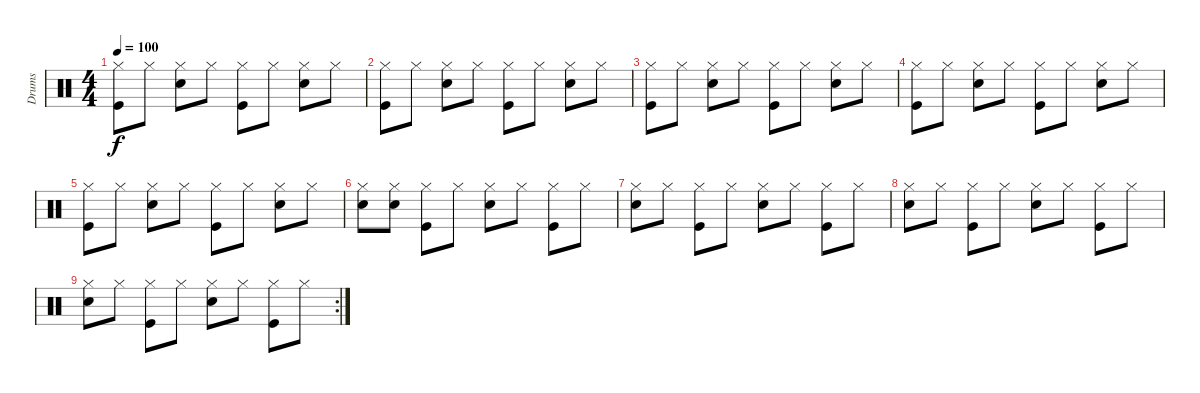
\track ("Drums" "Drums") {instrument percussion}
\staff {score}
\articulation defaults
\ts (4 4)
\tempo 100
\clef neutral
\ks c
("Hi-Hat (closed)" "Kick (hit)").8{dy f} "Hi-Hat (closed)".8 ("Hi-Hat (closed)" "Snare (hit) 2").8 "Hi-Hat (closed)".8 ("Hi-Hat (closed)" "Kick (hit)").8 "Hi-Hat (closed)".8 ("Hi-Hat (closed)" "Snare (hit) 2").8 "Hi-Hat (closed)".8 |
("Hi-Hat (closed)" "Kick (hit)").8 "Hi-Hat (closed)".8 ("Hi-Hat (closed)" "Snare (hit) 2").8 "Hi-Hat (closed)".8 ("Hi-Hat (closed)" "Kick (hit)").8 "Hi-Hat (closed)".8 ("Hi-Hat (closed)" "Snare (hit) 2").8 "Hi-Hat (closed)".8 |
("Hi-Hat (closed)" "Kick (hit)").8 "Hi-Hat (closed)".8 ("Hi-Hat (closed)" "Snare (hit) 2").8 "Hi-Hat (closed)".8 ("Hi-Hat (closed)" "Kick (hit)").8 "Hi-Hat (closed)".8 ("Hi-Hat (closed)" "Snare (hit) 2").8 "Hi-Hat (closed)".8 |
("Hi-Hat (closed)" "Kick (hit)").8 "Hi-Hat (closed)".8 ("Hi-Hat (closed)" "Snare (hit) 2").8 "Hi-Hat (closed)".8 ("Hi-Hat (closed)" "Kick (hit)").8 "Hi-Hat (closed)".8 ("Hi-Hat (closed)" "Snare (hit) 2").8 "Hi-Hat (closed)".8 |
("Hi-Hat (closed)" "Kick (hit)").8 "Hi-Hat (closed)".8 ("Hi-Hat (closed)" "Snare (hit) 2").8 "Hi-Hat (closed)".8 ("Hi-Hat (closed)" "Kick (hit)").8 "Hi-Hat (closed)".8 ("Hi-Hat (closed)" "Snare (hit) 2").8 "Hi-Hat (closed)".8 |
("Hi-Hat (closed)" "Snare (hit) 2").8 ("Hi-Hat (closed)" "Snare (hit) 2").8 ("Hi-Hat (closed)" "Kick (hit)").8 "Hi-Hat (closed)".8 ("Hi-Hat (closed)" "Snare (hit) 2").8 "Hi-Hat (closed)".8 ("Hi-Hat (closed)" "Kick (hit)").8 "Hi-Hat (closed)".8 |
("Hi-Hat (closed)" "Snare (hit) 2").8 "Hi-Hat (closed)".8 ("Hi-Hat (closed)" "Kick (hit)").8 "Hi-Hat (closed)".8 ("Hi-Hat (closed)" "Snare (hit) 2").8 "Hi-Hat (closed)".8 ("Hi-Hat (closed)" "Kick (hit)").8 "Hi-Hat (closed)".8 |
("Hi-Hat (closed)" "Snare (hit) 2").8 "Hi-Hat (closed)".8 ("Hi-Hat (closed)" "Kick (hit)").8 "Hi-Hat (closed)".8 ("Hi-Hat (closed)" "Snare (hit) 2").8 "Hi-Hat (closed)".8 ("Hi-Hat (closed)" "Kick (hit)").8 "Hi-Hat (closed)".8 |
\rc 2
("Hi-Hat (closed)" "Snare (hit) 2").8 "Hi-Hat (closed)".8 ("Hi-Hat (closed)" "Kick (hit)").8 "Hi-Hat (closed)".8 ("Hi-Hat (closed)" "Snare (hit) 2").8 "Hi-Hat (closed)".8 ("Hi-Hat (closed)" "Kick (hit)").8 "Hi-Hat (closed)".8
